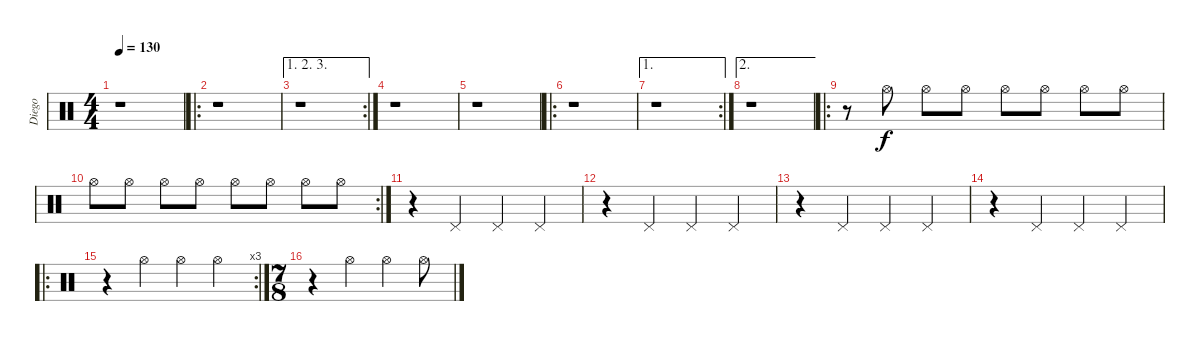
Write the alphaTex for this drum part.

\track ("Diego" "Diego") {instrument percussion}
\staff {score}
\articulation defaults
\ts (4 4)
\tempo 130
\clef neutral
\ks c
r.1{dy f} |
\ro
r.1 |
\ae (1 2 3)
\rc 2
r.1 |
r.1 |
r.1 |
\ro
r.1 |
\ae 1
\rc 2
r.1 |
\ae 2
r.1 |
\ro
r.8 "Hi-Hat (open)".8 "Hi-Hat (open)".8 "Hi-Hat (open)".8 "Hi-Hat (open)".8 "Hi-Hat (open)".8 "Hi-Hat (open)".8 "Hi-Hat (open)".8 |
\rc 2 "Hi-Hat (open)".8 "Hi-Hat (open)".8 "Hi-Hat (open)".8 "Hi-Hat (open)".8 "Hi-Hat (open)".8 "Hi-Hat (open)".8 "Hi-Hat (open)".8 "Hi-Hat (open)".8
|
r.4 "Pedal Hi-Hat (hit)".4 "Pedal Hi-Hat (hit)".4 "Pedal Hi-Hat (hit)".4 |
r.4 "Pedal Hi-Hat (hit)".4 "Pedal Hi-Hat (hit)".4 "Pedal Hi-Hat (hit)".4 |
r.4 "Pedal Hi-Hat (hit)".4 "Pedal Hi-Hat (hit)".4 "Pedal Hi-Hat (hit)".4 |
r.4 "Pedal Hi-Hat (hit)".4 "Pedal Hi-Hat (hit)".4 "Pedal Hi-Hat (hit)".4 |
\ro
\rc 3
r.4 "Hi-Hat (open)".4 "Hi-Hat (open)".4 "Hi-Hat (open)".4 |
\ts (7 8)
r.4 "Hi-Hat (open)".4 "Hi-Hat (open)".4 "Hi-Hat (open)".8
